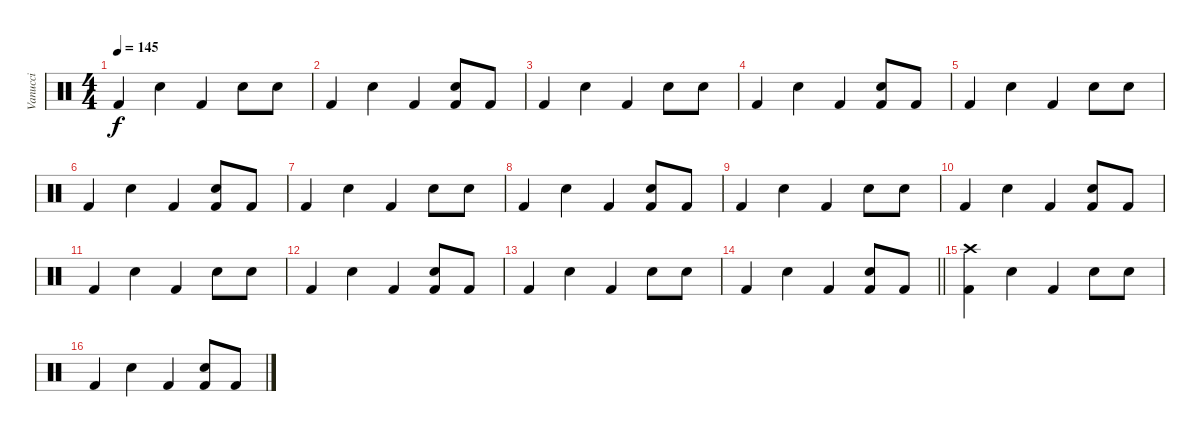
\track ("Vanucci" "Vanucci") {instrument percussion}
\staff {score}
\articulation defaults
\ts (4 4)
\tempo 145
\clef neutral
\ks c "Kick (hit) 2".4{dy f} "Electric Snare (hit)".4 "Kick (hit) 2".4 "Electric Snare (hit)".8 "Electric Snare (hit)".8
|
"Kick (hit) 2".4 "Electric Snare (hit)".4 "Kick (hit) 2".4 ("Electric Snare (hit)" "Kick (hit) 2").8 "Kick (hit) 2".8 |
"Kick (hit) 2".4 "Electric Snare (hit)".4 "Kick (hit) 2".4 "Electric Snare (hit)".8 "Electric Snare (hit)".8 |
"Kick (hit) 2".4 "Electric Snare (hit)".4 "Kick (hit) 2".4 ("Electric Snare (hit)" "Kick (hit) 2").8 "Kick (hit) 2".8 |
"Kick (hit) 2".4 "Electric Snare (hit)".4 "Kick (hit) 2".4 "Electric Snare (hit)".8 "Electric Snare (hit)".8 |
"Kick (hit) 2".4 "Electric Snare (hit)".4 "Kick (hit) 2".4 ("Electric Snare (hit)" "Kick (hit) 2").8 "Kick (hit) 2".8 |
"Kick (hit) 2".4 "Electric Snare (hit)".4 "Kick (hit) 2".4 "Electric Snare (hit)".8 "Electric Snare (hit)".8 |
"Kick (hit) 2".4 "Electric Snare (hit)".4 "Kick (hit) 2".4 ("Electric Snare (hit)" "Kick (hit) 2").8 "Kick (hit) 2".8 |
"Kick (hit) 2".4 "Electric Snare (hit)".4 "Kick (hit) 2".4 "Electric Snare (hit)".8 "Electric Snare (hit)".8 |
"Kick (hit) 2".4 "Electric Snare (hit)".4 "Kick (hit) 2".4 ("Electric Snare (hit)" "Kick (hit) 2").8 "Kick (hit) 2".8 |
"Kick (hit) 2".4 "Electric Snare (hit)".4 "Kick (hit) 2".4 "Electric Snare (hit)".8 "Electric Snare (hit)".8 |
"Kick (hit) 2".4 "Electric Snare (hit)".4 "Kick (hit) 2".4 ("Electric Snare (hit)" "Kick (hit) 2").8 "Kick (hit) 2".8 |
"Kick (hit) 2".4 "Electric Snare (hit)".4 "Kick (hit) 2".4 "Electric Snare (hit)".8 "Electric Snare (hit)".8 |
\barLineRight lightlight "Kick (hit) 2".4 "Electric Snare (hit)".4 "Kick (hit) 2".4
("Electric Snare (hit)" "Kick (hit) 2").8 "Kick (hit) 2".8 |
\section ("" ".")
("Crash high (hit)" "Kick (hit) 2").4 "Electric Snare (hit)".4 "Kick (hit) 2".4 "Electric Snare (hit)".8 "Electric Snare (hit)".8 |
"Kick (hit) 2".4 "Electric Snare (hit)".4 "Kick (hit) 2".4 ("Electric Snare (hit)" "Kick (hit) 2").8 "Kick (hit) 2".8
